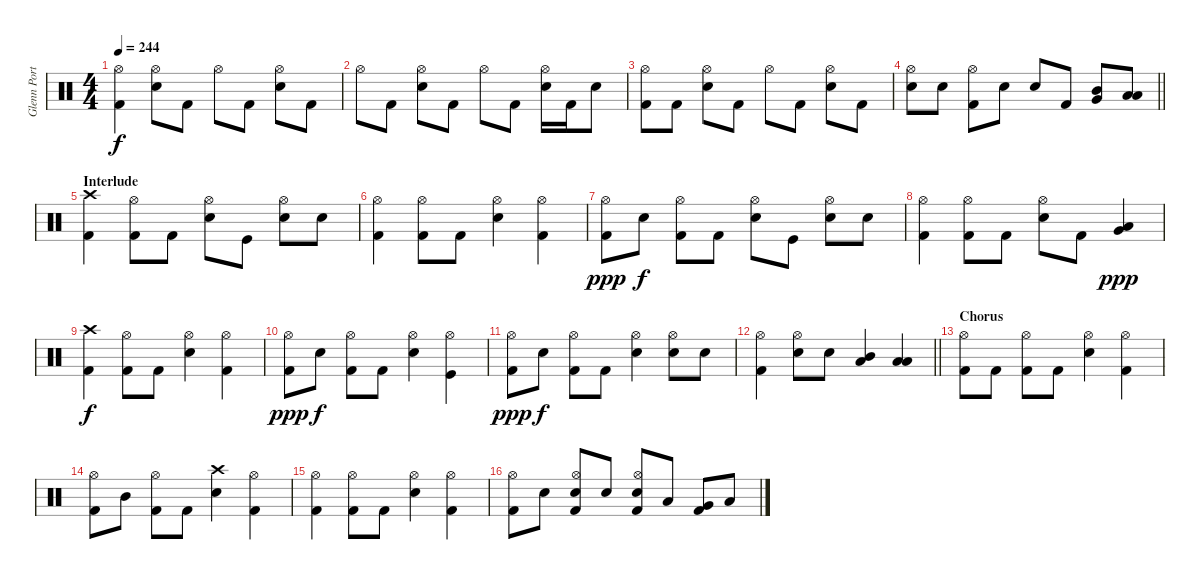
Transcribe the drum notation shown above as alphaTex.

\track ("Glenn Porter - Drums" "Glenn Port") {instrument percussion}
\staff {score}
\articulation defaults
\ts (4 4)
\tempo 244
\clef neutral
\ks c
("Kick (hit) 2" "Hi-Hat (open)").4{dy f} ("Snare (hit) 2" "Hi-Hat (open)").8 "Kick (hit) 2".8 "Hi-Hat (open)".8 "Kick (hit) 2".8 ("Snare (hit) 2" "Hi-Hat (open)").8 "Kick (hit) 2".8 |
"Hi-Hat (open)".8 "Kick (hit) 2".8 ("Snare (hit) 2" "Hi-Hat (open)").8 "Kick (hit) 2".8 "Hi-Hat (open)".8 "Kick (hit) 2".8 ("Snare (hit) 2" "Hi-Hat (open)").16 "Kick (hit) 2".16 "Snare (hit) 2".8 |
("Kick (hit) 2" "Hi-Hat (open)").8 "Kick (hit) 2".8 ("Snare (hit) 2" "Hi-Hat (open)").8 "Kick (hit) 2".8 "Hi-Hat (open)".8 "Kick (hit) 2".8 ("Snare (hit) 2" "Hi-Hat (open)").8 "Kick (hit) 2".8 |
\barLineRight lightlight
("Snare (hit) 2" "Hi-Hat (open)").8 "Snare (hit) 2".8 ("Kick (hit) 2" "Hi-Hat (open)").8 "Snare (hit) 2".8 "Snare (hit) 2".8 "Kick (hit) 2".8 ("Mid Tom (hit)" "Very Low Tom (hit)").8 ("Low Tom (hit)" "Low Floor Tom (hit)").8 |
\section ("" "Interlude")
("Kick (hit) 2" "Crash high (hit)").4 ("Kick (hit) 2" "Hi-Hat (open)").8 "Kick (hit) 2".8 ("Snare (hit) 2" "Hi-Hat (open)").8 "Kick (hit)".8 ("Snare (hit) 2" "Hi-Hat (open)").8 "Snare (hit) 2".8 |
("Kick (hit) 2" "Hi-Hat (open)").4 ("Kick (hit) 2" "Hi-Hat (open)").8 "Kick (hit) 2".8 ("Snare (hit) 2" "Hi-Hat (open)").4 ("Kick (hit) 2" "Hi-Hat (open)").4 |
("Kick (hit) 2" "Hi-Hat (open)").8{dy ppp} "Snare (hit) 2".8{dy f} ("Kick (hit) 2" "Hi-Hat (open)").8 "Kick (hit) 2".8 ("Snare (hit) 2" "Hi-Hat (open)").8 "Kick (hit)".8 ("Snare (hit) 2" "Hi-Hat (open)").8 "Snare (hit) 2".8 |
("Kick (hit) 2" "Hi-Hat (open)").4 ("Kick (hit) 2" "Hi-Hat (open)").8 "Kick (hit) 2".8 ("Snare (hit) 2" "Hi-Hat (open)").8 "Kick (hit) 2".8 ("Very Low Tom (hit)" "Low Floor Tom (hit)").4{dy ppp} |
("Kick (hit) 2" "Crash high (hit)").4{dy f} ("Kick (hit) 2" "Hi-Hat (open)").8 "Kick (hit) 2".8 ("Snare (hit) 2" "Hi-Hat (open)").4 ("Kick (hit) 2" "Hi-Hat (open)").4 |
("Kick (hit) 2" "Hi-Hat (open)").8{dy ppp} "Snare (hit) 2".8{dy f} ("Kick (hit) 2" "Hi-Hat (open)").8 "Kick (hit) 2".8 ("Snare (hit) 2" "Hi-Hat (open)").4 ("Kick (hit)" "Hi-Hat (open)").4 |
("Kick (hit) 2" "Hi-Hat (open)").8{dy ppp} "Snare (hit) 2".8{dy f} ("Kick (hit) 2" "Hi-Hat (open)").8 "Kick (hit) 2".8 ("Snare (hit) 2" "Hi-Hat (open)").4 ("Snare (hit) 2" "Hi-Hat (open)").8 "Snare (hit) 2".8 |
\barLineRight lightlight
("Kick (hit) 2" "Hi-Hat (open)").4 ("Snare (hit) 2" "Hi-Hat (open)").8 "Snare (hit) 2".8 ("Low Tom (hit)" "Mid Tom (hit)").4 ("Low Floor Tom (hit)" "Low Tom (hit)").4 |
\section ("" "Chorus")
("Kick (hit) 2" "Hi-Hat (open)").8 "Kick (hit) 2".8 ("Kick (hit) 2" "Hi-Hat (open)").8 "Kick (hit) 2".8 ("Snare (hit) 2" "Hi-Hat (open)").4 ("Kick (hit) 2" "Hi-Hat (open)").4 |
("Kick (hit) 2" "Hi-Hat (open)").8 "Mid Tom (hit)".8 ("Kick (hit) 2" "Hi-Hat (open)").8 "Kick (hit) 2".8 ("Snare (hit) 2" "Crash high (hit)").4 ("Kick (hit) 2" "Hi-Hat (open)").4 |
("Kick (hit) 2" "Hi-Hat (open)").4 ("Kick (hit) 2" "Hi-Hat (open)").8 "Kick (hit) 2".8 ("Snare (hit) 2" "Hi-Hat (open)").4 ("Kick (hit) 2" "Hi-Hat (open)").4 |
("Kick (hit) 2" "Hi-Hat (open)").8 "Snare (hit) 2".8 ("Snare (hit) 2" "Kick (hit) 2" "Hi-Hat (open)").8 "Snare (hit) 2".8 ("Snare (hit) 2" "Kick (hit) 2" "Hi-Hat (open)").8 "Low Tom (hit)".8 ("Very Low Tom (hit)" "Kick (hit) 2").8 "Low Floor Tom (hit)".8
